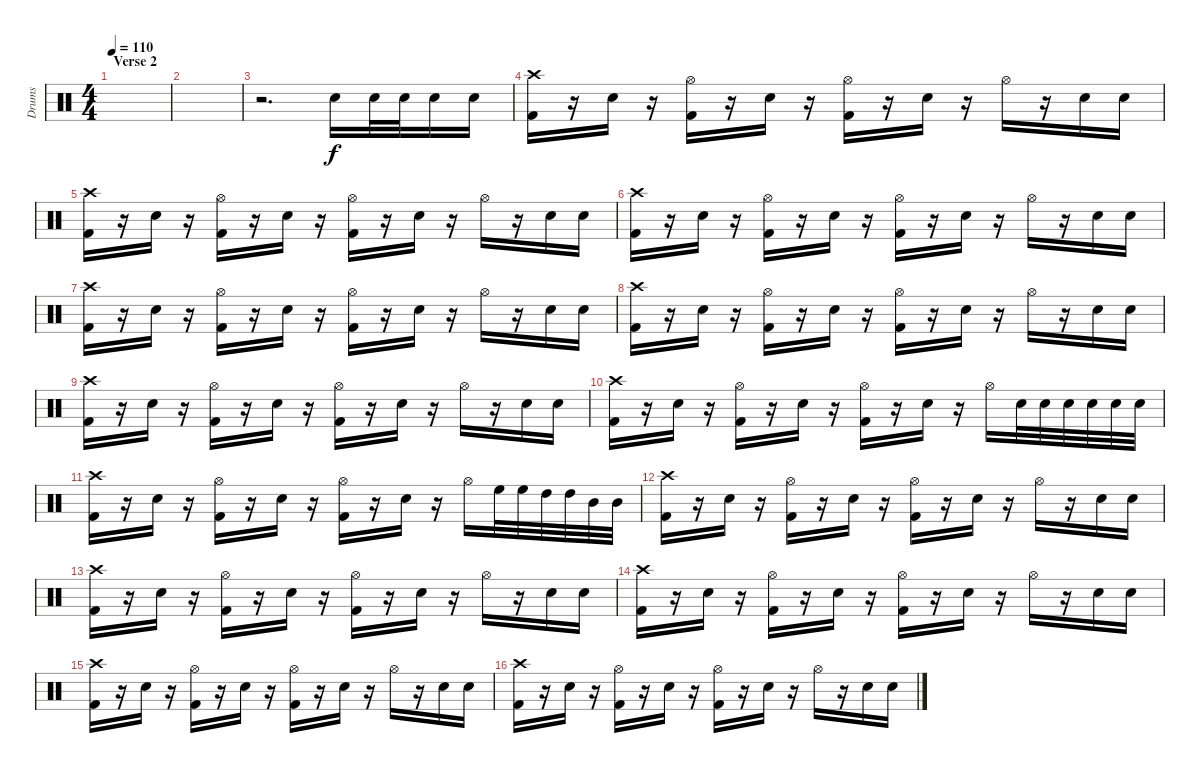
\track ("Drums" "Drums") {instrument percussion}
\staff {score}
\articulation defaults
\ts (4 4)
\section ("" "Verse 2")
\tempo 110
\clef neutral
\ks c
|
|
r.2{d} "Snare (hit) 2".16 "Snare (hit) 2".32 "Snare (hit) 2".32 "Snare (hit) 2".16 "Snare (hit) 2".16 |
("Crash high (hit)" "Kick (hit) 2").16 r.16 "Snare (hit) 2".16 r.16 ("Hi-Hat (open)" "Kick (hit) 2").16 r.16 "Snare (hit) 2".16 r.16 ("Hi-Hat (open)" "Kick (hit) 2").16 r.16 "Snare (hit) 2".16 r.16 "Hi-Hat (open)".16 r.16 "Snare (hit) 2".16 "Snare (hit) 2".16 |
("Crash high (hit)" "Kick (hit) 2").16 r.16 "Snare (hit) 2".16 r.16 ("Hi-Hat (open)" "Kick (hit) 2").16 r.16 "Snare (hit) 2".16 r.16 ("Hi-Hat (open)" "Kick (hit) 2").16 r.16 "Snare (hit) 2".16 r.16 "Hi-Hat (open)".16 r.16 "Snare (hit) 2".16 "Snare (hit) 2".16 |
("Crash high (hit)" "Kick (hit) 2").16 r.16 "Snare (hit) 2".16 r.16 ("Hi-Hat (open)" "Kick (hit) 2").16 r.16 "Snare (hit) 2".16 r.16 ("Hi-Hat (open)" "Kick (hit) 2").16 r.16 "Snare (hit) 2".16 r.16 "Hi-Hat (open)".16 r.16 "Snare (hit) 2".16 "Snare (hit) 2".16 |
("Crash high (hit)" "Kick (hit) 2").16 r.16 "Snare (hit) 2".16 r.16 ("Hi-Hat (open)" "Kick (hit) 2").16 r.16 "Snare (hit) 2".16 r.16 ("Hi-Hat (open)" "Kick (hit) 2").16 r.16 "Snare (hit) 2".16 r.16 "Hi-Hat (open)".16 r.16 "Snare (hit) 2".16 "Snare (hit) 2".16 |
("Crash high (hit)" "Kick (hit) 2").16 r.16 "Snare (hit) 2".16 r.16 ("Hi-Hat (open)" "Kick (hit) 2").16 r.16 "Snare (hit) 2".16 r.16 ("Hi-Hat (open)" "Kick (hit) 2").16 r.16 "Snare (hit) 2".16 r.16 "Hi-Hat (open)".16 r.16 "Snare (hit) 2".16 "Snare (hit) 2".16 |
("Crash high (hit)" "Kick (hit) 2").16 r.16 "Snare (hit) 2".16 r.16 ("Hi-Hat (open)" "Kick (hit) 2").16 r.16 "Snare (hit) 2".16 r.16 ("Hi-Hat (open)" "Kick (hit) 2").16 r.16 "Snare (hit) 2".16 r.16 "Hi-Hat (open)".16 r.16 "Snare (hit) 2".16 "Snare (hit) 2".16 |
("Crash high (hit)" "Kick (hit) 2").16 r.16 "Snare (hit) 2".16 r.16 ("Hi-Hat (open)" "Kick (hit) 2").16 r.16 "Snare (hit) 2".16 r.16 ("Hi-Hat (open)" "Kick (hit) 2").16 r.16 "Snare (hit) 2".16 r.16 "Hi-Hat (open)".16 "Snare (hit) 2".32 "Snare (hit) 2".32 "Snare (hit) 2".32 "Snare (hit) 2".32 "Snare (hit) 2".32 "Snare (hit) 2".32 |
("Crash high (hit)" "Kick (hit) 2").16 r.16 "Snare (hit) 2".16 r.16 ("Hi-Hat (open)" "Kick (hit) 2").16 r.16 "Snare (hit) 2".16 r.16 ("Hi-Hat (open)" "Kick (hit) 2").16 r.16 "Snare (hit) 2".16 r.16 "Hi-Hat (open)".16 "High Floor Tom (hit)".32 "High Floor Tom (hit)".32 "High Tom (hit)".32 "High Tom (hit)".32 "Mid Tom (hit)".32 "Mid Tom (hit)".32 |
("Crash high (hit)" "Kick (hit) 2").16 r.16 "Snare (hit) 2".16 r.16 ("Hi-Hat (open)" "Kick (hit) 2").16 r.16 "Snare (hit) 2".16 r.16 ("Hi-Hat (open)" "Kick (hit) 2").16 r.16 "Snare (hit) 2".16 r.16 "Hi-Hat (open)".16 r.16 "Snare (hit) 2".16 "Snare (hit) 2".16 |
("Crash high (hit)" "Kick (hit) 2").16 r.16 "Snare (hit) 2".16 r.16 ("Hi-Hat (open)" "Kick (hit) 2").16 r.16 "Snare (hit) 2".16 r.16 ("Hi-Hat (open)" "Kick (hit) 2").16 r.16 "Snare (hit) 2".16 r.16 "Hi-Hat (open)".16 r.16 "Snare (hit) 2".16 "Snare (hit) 2".16 |
("Crash high (hit)" "Kick (hit) 2").16 r.16 "Snare (hit) 2".16 r.16 ("Hi-Hat (open)" "Kick (hit) 2").16 r.16 "Snare (hit) 2".16 r.16 ("Hi-Hat (open)" "Kick (hit) 2").16 r.16 "Snare (hit) 2".16 r.16 "Hi-Hat (open)".16 r.16 "Snare (hit) 2".16 "Snare (hit) 2".16 |
("Crash high (hit)" "Kick (hit) 2").16 r.16 "Snare (hit) 2".16 r.16 ("Hi-Hat (open)" "Kick (hit) 2").16 r.16 "Snare (hit) 2".16 r.16 ("Hi-Hat (open)" "Kick (hit) 2").16 r.16 "Snare (hit) 2".16 r.16 "Hi-Hat (open)".16 r.16 "Snare (hit) 2".16 "Snare (hit) 2".16 |
("Crash high (hit)" "Kick (hit) 2").16 r.16 "Snare (hit) 2".16 r.16 ("Hi-Hat (open)" "Kick (hit) 2").16 r.16 "Snare (hit) 2".16 r.16 ("Hi-Hat (open)" "Kick (hit) 2").16 r.16 "Snare (hit) 2".16 r.16 "Hi-Hat (open)".16 r.16 "Snare (hit) 2".16 "Snare (hit) 2".16
